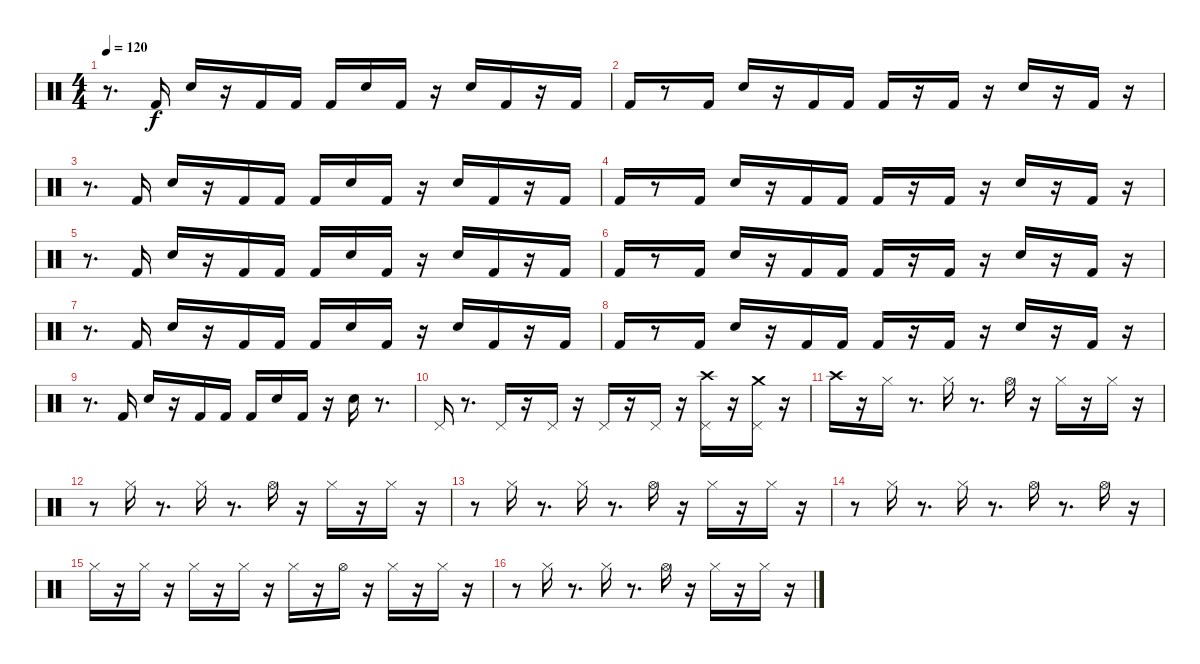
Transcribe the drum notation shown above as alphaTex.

\track "" {instrument percussion}
\staff {score}
\articulation defaults
\ts (4 4)
\tempo 120
\clef neutral
\ks c
r.8{d dy f} "Kick (hit) 2".16 "Electric Snare (hit)".16 r.16 "Kick (hit) 2".16 "Kick (hit) 2".16 "Kick (hit) 2".16 "Electric Snare (hit)".16 "Kick (hit) 2".16 r.16 "Electric Snare (hit)".16 "Kick (hit) 2".16 r.16 "Kick (hit) 2".16 |
"Kick (hit) 2".16 r.8 "Kick (hit) 2".16 "Electric Snare (hit)".16 r.16 "Kick (hit) 2".16 "Kick (hit) 2".16 "Kick (hit) 2".16 r.16 "Kick (hit) 2".16 r.16 "Electric Snare (hit)".16 r.16 "Kick (hit) 2".16 r.16 |
r.8{d} "Kick (hit) 2".16 "Electric Snare (hit)".16 r.16 "Kick (hit) 2".16 "Kick (hit) 2".16 "Kick (hit) 2".16 "Electric Snare (hit)".16 "Kick (hit) 2".16 r.16 "Electric Snare (hit)".16 "Kick (hit) 2".16 r.16 "Kick (hit) 2".16 |
"Kick (hit) 2".16 r.8 "Kick (hit) 2".16 "Electric Snare (hit)".16 r.16 "Kick (hit) 2".16 "Kick (hit) 2".16 "Kick (hit) 2".16 r.16 "Kick (hit) 2".16 r.16 "Electric Snare (hit)".16 r.16 "Kick (hit) 2".16 r.16 |
r.8{d} "Kick (hit) 2".16 "Electric Snare (hit)".16 r.16 "Kick (hit) 2".16 "Kick (hit) 2".16 "Kick (hit) 2".16 "Electric Snare (hit)".16 "Kick (hit) 2".16 r.16 "Electric Snare (hit)".16 "Kick (hit) 2".16 r.16 "Kick (hit) 2".16 |
"Kick (hit) 2".16 r.8 "Kick (hit) 2".16 "Electric Snare (hit)".16 r.16 "Kick (hit) 2".16 "Kick (hit) 2".16 "Kick (hit) 2".16 r.16 "Kick (hit) 2".16 r.16 "Electric Snare (hit)".16 r.16 "Kick (hit) 2".16 r.16 |
r.8{d} "Kick (hit) 2".16 "Electric Snare (hit)".16 r.16 "Kick (hit) 2".16 "Kick (hit) 2".16 "Kick (hit) 2".16 "Electric Snare (hit)".16 "Kick (hit) 2".16 r.16 "Electric Snare (hit)".16 "Kick (hit) 2".16 r.16 "Kick (hit) 2".16 |
"Kick (hit) 2".16 r.8 "Kick (hit) 2".16 "Electric Snare (hit)".16 r.16 "Kick (hit) 2".16 "Kick (hit) 2".16 "Kick (hit) 2".16 r.16 "Kick (hit) 2".16 r.16 "Electric Snare (hit)".16 r.16 "Kick (hit) 2".16 r.16 |
r.8{d} "Kick (hit) 2".16 "Electric Snare (hit)".16 r.16 "Kick (hit) 2".16 "Kick (hit) 2".16 "Kick (hit) 2".16 "Electric Snare (hit)".16 "Kick (hit) 2".16 r.16 "Electric Snare (hit)".16 r.8{d} |
"Pedal Hi-Hat (hit)".16 r.8{d} "Pedal Hi-Hat (hit)".16 r.16 "Pedal Hi-Hat (hit)".16 r.16 "Pedal Hi-Hat (hit)".16 r.16 "Pedal Hi-Hat (hit)".16 r.16 ("Crash high (hit)" "Pedal Hi-Hat (hit)").16 r.16 ("Crash medium (hit)" "Pedal Hi-Hat (hit)").16 r.16 |
"Crash high (hit)".16 r.16 "Hi-Hat (closed)".16 r.8{d} "Hi-Hat (closed)".16 r.8{d} "Hi-Hat (open)".16 r.16 "Hi-Hat (closed)".16 r.16 "Hi-Hat (closed)".16 r.16 |
r.8 "Hi-Hat (closed)".16 r.8{d} "Hi-Hat (closed)".16 r.8{d} "Hi-Hat (open)".16 r.16 "Hi-Hat (closed)".16 r.16 "Hi-Hat (closed)".16 r.16 |
r.8 "Hi-Hat (closed)".16 r.8{d} "Hi-Hat (closed)".16 r.8{d} "Hi-Hat (open)".16 r.16 "Hi-Hat (closed)".16 r.16 "Hi-Hat (closed)".16 r.16 |
r.8 "Hi-Hat (closed)".16 r.8{d} "Hi-Hat (closed)".16 r.8{d} "Hi-Hat (open)".16 r.8{d} "Hi-Hat (open)".16 r.16 |
"Hi-Hat (closed)".16 r.16 "Hi-Hat (closed)".16 r.16 "Hi-Hat (closed)".16 r.16 "Hi-Hat (closed)".16 r.16 "Hi-Hat (closed)".16 r.16 "Hi-Hat (open)".16 r.16 "Hi-Hat (closed)".16 r.16 "Hi-Hat (closed)".16 r.16 |
r.8 "Hi-Hat (closed)".16 r.8{d} "Hi-Hat (closed)".16 r.8{d} "Hi-Hat (open)".16 r.16 "Hi-Hat (closed)".16 r.16 "Hi-Hat (closed)".16 r.16
